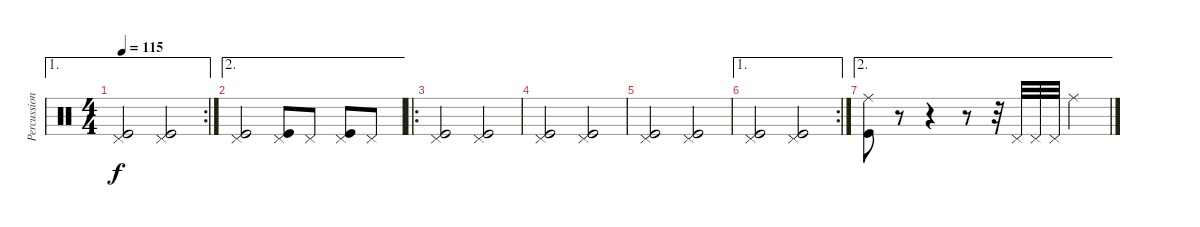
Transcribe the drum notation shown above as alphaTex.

\track ("Percussions" "Percussion") {instrument percussion}
\staff {score}
\articulation defaults
\ae 1
\rc 2
\ts (4 4)
\tempo 115
\clef neutral
\ks c
("Pedal Hi-Hat (hit)" "Kick (hit)").2{dy f} ("Pedal Hi-Hat (hit)" "Kick (hit)").2 |
\ae 2
("Pedal Hi-Hat (hit)" "Kick (hit)").2 ("Pedal Hi-Hat (hit)" "Kick (hit)").8 "Pedal Hi-Hat (hit)".8 ("Pedal Hi-Hat (hit)" "Kick (hit)").8 "Pedal Hi-Hat (hit)".8 |
\ro
("Pedal Hi-Hat (hit)" "Kick (hit)").2 ("Pedal Hi-Hat (hit)" "Kick (hit)").2 |
("Pedal Hi-Hat (hit)" "Kick (hit)").2 ("Pedal Hi-Hat (hit)" "Kick (hit)").2 |
("Pedal Hi-Hat (hit)" "Kick (hit)").2 ("Pedal Hi-Hat (hit)" "Kick (hit)").2 |
\ae 1
\rc 2
("Pedal Hi-Hat (hit)" "Kick (hit)").2 ("Pedal Hi-Hat (hit)" "Kick (hit)").2 |
\ae 2
("Ride (middle)" "Kick (hit)").8 r.8 r.4 r.8 r.32 "Pedal Hi-Hat (hit)".32 "Pedal Hi-Hat (hit)".32 "Pedal Hi-Hat (hit)".32 "Ride (middle)".4
